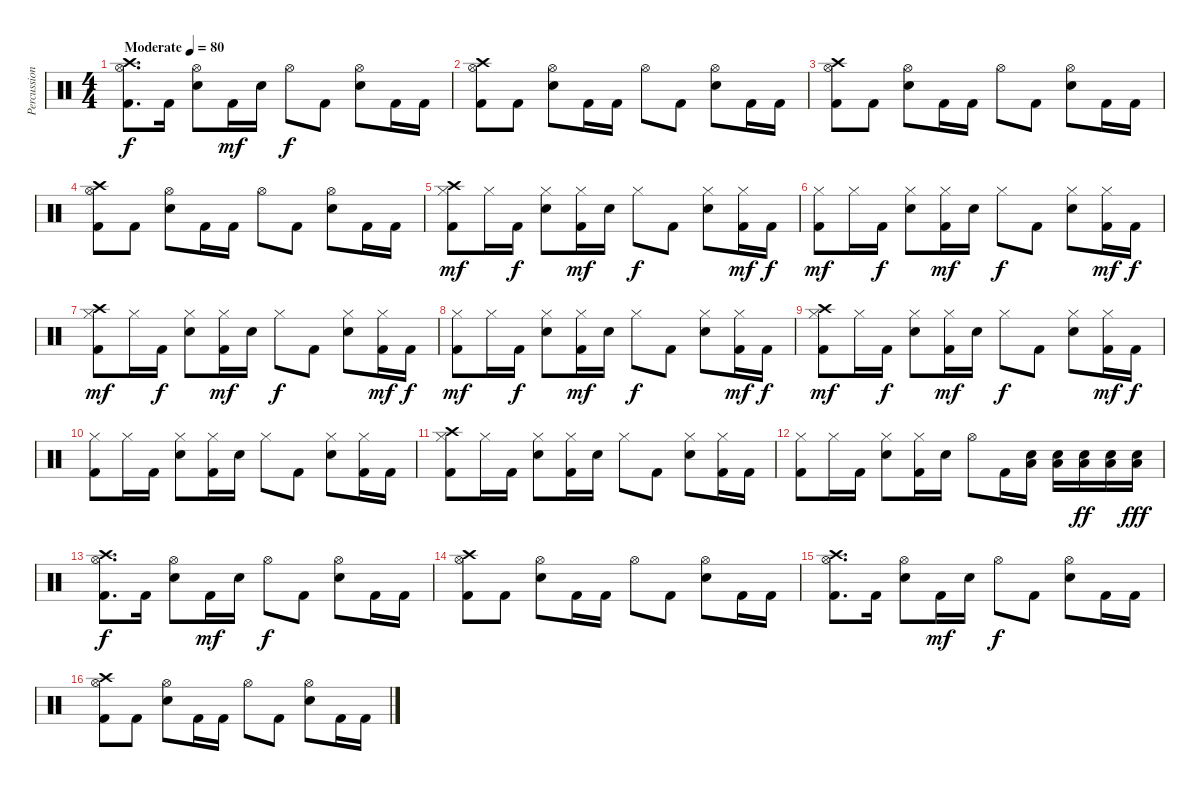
\track ("Percussion" "Percussion") {instrument percussion}
\staff {score}
\articulation defaults
\ts (4 4)
\tempo (80 "Moderate")
\clef neutral
\ks c
("Crash high (hit)" "Hi-Hat (open)" "Kick (hit) 2").8{d dy f} "Kick (hit) 2".16 ("Hi-Hat (open)" "Snare (hit) 2").8 "Kick (hit) 2".16{dy mf} "Snare (hit) 2".16 "Hi-Hat (open)".8{dy f} "Kick (hit) 2".8 ("Hi-Hat (open)" "Snare (hit) 2").8 "Kick (hit) 2".16 "Kick (hit) 2".16 |
("Crash high (hit)" "Hi-Hat (open)" "Kick (hit) 2").8 "Kick (hit) 2".8 ("Hi-Hat (open)" "Snare (hit) 2").8 "Kick (hit) 2".16 "Kick (hit) 2".16 "Hi-Hat (open)".8 "Kick (hit) 2".8 ("Hi-Hat (open)" "Snare (hit) 2").8 "Kick (hit) 2".16 "Kick (hit) 2".16 |
("Crash high (hit)" "Hi-Hat (open)" "Kick (hit) 2").8 "Kick (hit) 2".8 ("Hi-Hat (open)" "Snare (hit) 2").8 "Kick (hit) 2".16 "Kick (hit) 2".16 "Hi-Hat (open)".8 "Kick (hit) 2".8 ("Hi-Hat (open)" "Snare (hit) 2").8 "Kick (hit) 2".16 "Kick (hit) 2".16 |
("Crash high (hit)" "Hi-Hat (open)" "Kick (hit) 2").8 "Kick (hit) 2".8 ("Hi-Hat (open)" "Snare (hit) 2").8 "Kick (hit) 2".16 "Kick (hit) 2".16 "Hi-Hat (open)".8 "Kick (hit) 2".8 ("Hi-Hat (open)" "Snare (hit) 2").8 "Kick (hit) 2".16 "Kick (hit) 2".16 |
("Crash high (hit)" "Hi-Hat (closed)" "Kick (hit) 2").8{dy mf} "Hi-Hat (closed)".16 "Kick (hit) 2".16{dy f} ("Hi-Hat (closed)" "Snare (hit) 2").8 ("Hi-Hat (closed)" "Kick (hit) 2").16{dy mf} "Snare (hit) 2".16 "Hi-Hat (closed)".8{dy f} "Kick (hit) 2".8 ("Hi-Hat (closed)" "Snare (hit) 2").8 ("Hi-Hat (closed)" "Kick (hit) 2").16{dy mf} "Kick (hit) 2".16{dy f} |
("Hi-Hat (closed)" "Kick (hit) 2").8{dy mf} "Hi-Hat (closed)".16 "Kick (hit) 2".16{dy f} ("Hi-Hat (closed)" "Snare (hit) 2").8 ("Hi-Hat (closed)" "Kick (hit) 2").16{dy mf} "Snare (hit) 2".16 "Hi-Hat (closed)".8{dy f} "Kick (hit) 2".8 ("Hi-Hat (closed)" "Snare (hit) 2").8 ("Hi-Hat (closed)" "Kick (hit) 2").16{dy mf} "Kick (hit) 2".16{dy f} |
("Crash high (hit)" "Hi-Hat (closed)" "Kick (hit) 2").8{dy mf} "Hi-Hat (closed)".16 "Kick (hit) 2".16{dy f} ("Hi-Hat (closed)" "Snare (hit) 2").8 ("Hi-Hat (closed)" "Kick (hit) 2").16{dy mf} "Snare (hit) 2".16 "Hi-Hat (closed)".8{dy f} "Kick (hit) 2".8 ("Hi-Hat (closed)" "Snare (hit) 2").8 ("Hi-Hat (closed)" "Kick (hit) 2").16{dy mf} "Kick (hit) 2".16{dy f} |
("Hi-Hat (closed)" "Kick (hit) 2").8{dy mf} "Hi-Hat (closed)".16 "Kick (hit) 2".16{dy f} ("Hi-Hat (closed)" "Snare (hit) 2").8 ("Hi-Hat (closed)" "Kick (hit) 2").16{dy mf} "Snare (hit) 2".16 "Hi-Hat (closed)".8{dy f} "Kick (hit) 2".8 ("Hi-Hat (closed)" "Snare (hit) 2").8 ("Hi-Hat (closed)" "Kick (hit) 2").16{dy mf} "Kick (hit) 2".16{dy f} |
("Crash high (hit)" "Hi-Hat (closed)" "Kick (hit) 2").8{dy mf} "Hi-Hat (closed)".16 "Kick (hit) 2".16{dy f} ("Hi-Hat (closed)" "Snare (hit) 2").8 ("Hi-Hat (closed)" "Kick (hit) 2").16{dy mf} "Snare (hit) 2".16 "Hi-Hat (closed)".8{dy f} "Kick (hit) 2".8 ("Hi-Hat (closed)" "Snare (hit) 2").8 ("Hi-Hat (closed)" "Kick (hit) 2").16{dy mf} "Kick (hit) 2".16{dy f} |
("Hi-Hat (closed)" "Kick (hit) 2").8 "Hi-Hat (closed)".16 "Kick (hit) 2".16 ("Hi-Hat (closed)" "Snare (hit) 2").8 ("Hi-Hat (closed)" "Kick (hit) 2").16 "Snare (hit) 2".16 "Hi-Hat (closed)".8 "Kick (hit) 2".8 ("Hi-Hat (closed)" "Snare (hit) 2").8 ("Hi-Hat (closed)" "Kick (hit) 2").16 "Kick (hit) 2".16 |
("Crash high (hit)" "Hi-Hat (closed)" "Kick (hit) 2").8 "Hi-Hat (closed)".16 "Kick (hit) 2".16 ("Hi-Hat (closed)" "Snare (hit) 2").8 ("Hi-Hat (closed)" "Kick (hit) 2").16 "Snare (hit) 2".16 "Hi-Hat (closed)".8 "Kick (hit) 2".8 ("Hi-Hat (closed)" "Snare (hit) 2").8 ("Hi-Hat (closed)" "Kick (hit) 2").16 "Kick (hit) 2".16 |
("Hi-Hat (closed)" "Kick (hit) 2").8 "Hi-Hat (closed)".16 "Kick (hit) 2".16 ("Hi-Hat (closed)" "Snare (hit) 2").8 ("Hi-Hat (closed)" "Kick (hit) 2").16 "Snare (hit) 2".16 "Hi-Hat (open)".8 "Kick (hit) 2".16 ("Low Floor Tom (hit)" "Snare (hit) 2").16 ("Low Floor Tom (hit)" "Snare (hit) 2").16 ("Low Floor Tom (hit)" "Snare (hit) 2").16{dy ff} ("Low Floor Tom (hit)" "Snare (hit) 2").16 ("Low Floor Tom (hit)" "Snare (hit) 2").16{dy fff} |
("Crash high (hit)" "Hi-Hat (open)" "Kick (hit) 2").8{d dy f} "Kick (hit) 2".16 ("Hi-Hat (open)" "Snare (hit) 2").8 "Kick (hit) 2".16{dy mf} "Snare (hit) 2".16 "Hi-Hat (open)".8{dy f} "Kick (hit) 2".8 ("Hi-Hat (open)" "Snare (hit) 2").8 "Kick (hit) 2".16 "Kick (hit) 2".16 |
("Crash high (hit)" "Hi-Hat (open)" "Kick (hit) 2").8 "Kick (hit) 2".8 ("Hi-Hat (open)" "Snare (hit) 2").8 "Kick (hit) 2".16 "Kick (hit) 2".16 "Hi-Hat (open)".8 "Kick (hit) 2".8 ("Hi-Hat (open)" "Snare (hit) 2").8 "Kick (hit) 2".16 "Kick (hit) 2".16 |
("Crash high (hit)" "Hi-Hat (open)" "Kick (hit) 2").8{d} "Kick (hit) 2".16 ("Hi-Hat (open)" "Snare (hit) 2").8 "Kick (hit) 2".16{dy mf} "Snare (hit) 2".16 "Hi-Hat (open)".8{dy f} "Kick (hit) 2".8 ("Hi-Hat (open)" "Snare (hit) 2").8 "Kick (hit) 2".16 "Kick (hit) 2".16 |
("Crash high (hit)" "Hi-Hat (open)" "Kick (hit) 2").8 "Kick (hit) 2".8 ("Hi-Hat (open)" "Snare (hit) 2").8 "Kick (hit) 2".16 "Kick (hit) 2".16 "Hi-Hat (open)".8 "Kick (hit) 2".8 ("Hi-Hat (open)" "Snare (hit) 2").8 "Kick (hit) 2".16 "Kick (hit) 2".16
